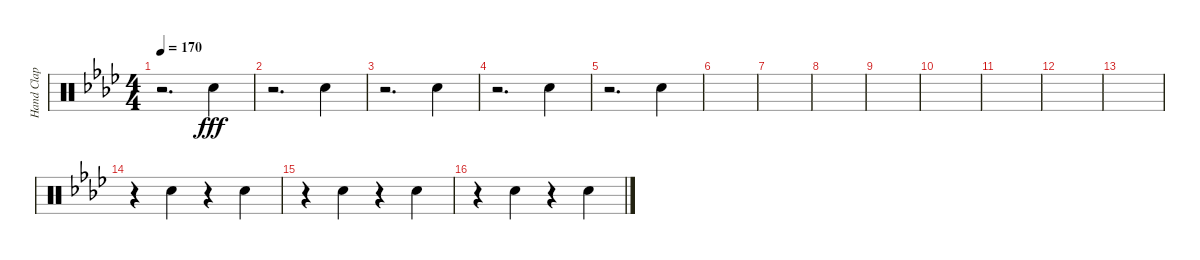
\track ("Hand Clap" "Hand Clap") {instrument percussion}
\staff {score}
\articulation defaults
\ts (4 4)
\tempo 170
\clef neutral
\ks ab
r.2{d dy fff} "Hand Clap (hit)".4 |
r.2{d} "Hand Clap (hit)".4 |
r.2{d} "Hand Clap (hit)".4 |
r.2{d} "Hand Clap (hit)".4 |
r.2{d} "Hand Clap (hit)".4 |
|
|
|
|
|
|
|
|
r.4 "Hand Clap (hit)".4 r.4 "Hand Clap (hit)".4 |
r.4 "Hand Clap (hit)".4 r.4 "Hand Clap (hit)".4 |
r.4 "Hand Clap (hit)".4 r.4 "Hand Clap (hit)".4
